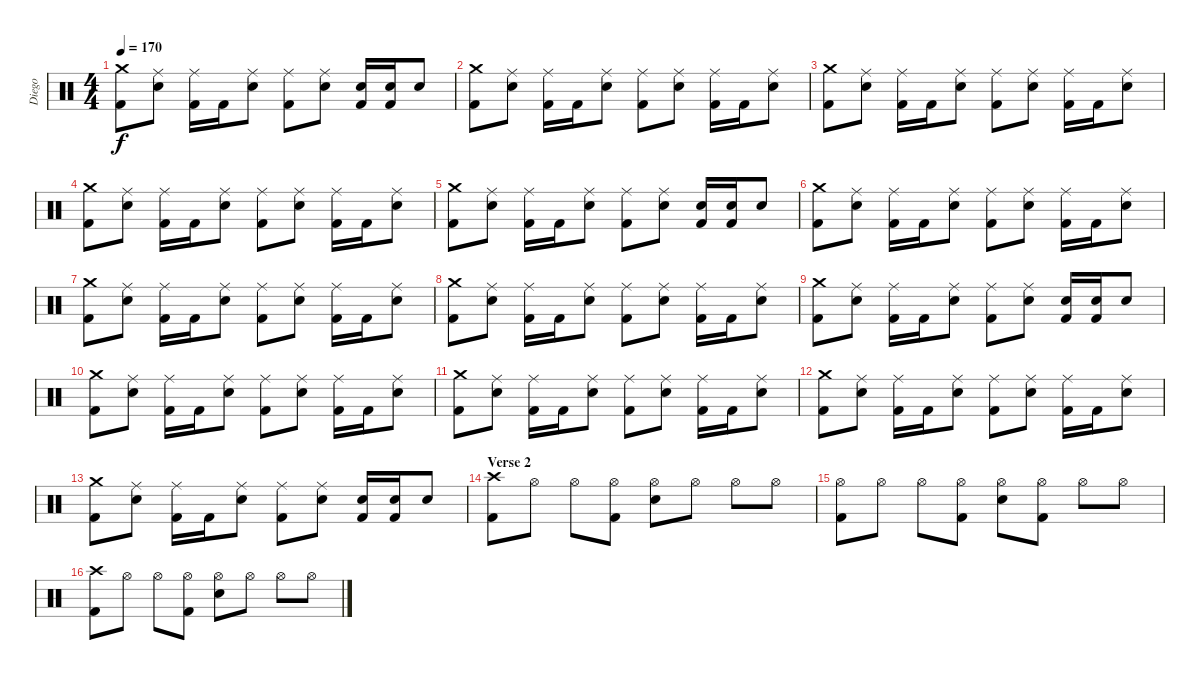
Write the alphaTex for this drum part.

\track ("Diego" "Diego") {instrument percussion}
\staff {score}
\articulation defaults
\ts (4 4)
\tempo 170
\clef neutral
\ks c
("Crash medium (hit)" "Kick (hit) 2").8{dy f} ("Ride (middle)" "Electric Snare (hit)").8 ("Ride (middle)" "Kick (hit) 2").16 "Kick (hit) 2".16 ("Ride (middle)" "Electric Snare (hit)").8 ("Ride (middle)" "Kick (hit) 2").8 ("Ride (middle)" "Electric Snare (hit)").8 ("Electric Snare (hit)" "Kick (hit) 2").16 ("Electric Snare (hit)" "Kick (hit) 2").16 "Electric Snare (hit)".8 |
("Crash medium (hit)" "Kick (hit) 2").8 ("Ride (middle)" "Electric Snare (hit)").8 ("Ride (middle)" "Kick (hit) 2").16 "Kick (hit) 2".16 ("Ride (middle)" "Electric Snare (hit)").8 ("Ride (middle)" "Kick (hit) 2").8 ("Ride (middle)" "Electric Snare (hit)").8 ("Ride (middle)" "Kick (hit) 2").16 "Kick (hit) 2".16 ("Ride (middle)" "Electric Snare (hit)").8 |
("Crash medium (hit)" "Kick (hit) 2").8 ("Ride (middle)" "Electric Snare (hit)").8 ("Ride (middle)" "Kick (hit) 2").16 "Kick (hit) 2".16 ("Ride (middle)" "Electric Snare (hit)").8 ("Ride (middle)" "Kick (hit) 2").8 ("Ride (middle)" "Electric Snare (hit)").8 ("Ride (middle)" "Kick (hit) 2").16 "Kick (hit) 2".16 ("Ride (middle)" "Electric Snare (hit)").8 |
("Crash medium (hit)" "Kick (hit) 2").8 ("Ride (middle)" "Electric Snare (hit)").8 ("Ride (middle)" "Kick (hit) 2").16 "Kick (hit) 2".16 ("Ride (middle)" "Electric Snare (hit)").8 ("Ride (middle)" "Kick (hit) 2").8 ("Ride (middle)" "Electric Snare (hit)").8 ("Ride (middle)" "Kick (hit) 2").16 "Kick (hit) 2".16 ("Ride (middle)" "Electric Snare (hit)").8 |
("Crash medium (hit)" "Kick (hit) 2").8 ("Ride (middle)" "Electric Snare (hit)").8 ("Ride (middle)" "Kick (hit) 2").16 "Kick (hit) 2".16 ("Ride (middle)" "Electric Snare (hit)").8 ("Ride (middle)" "Kick (hit) 2").8 ("Ride (middle)" "Electric Snare (hit)").8 ("Electric Snare (hit)" "Kick (hit) 2").16 ("Electric Snare (hit)" "Kick (hit) 2").16 "Electric Snare (hit)".8 |
("Crash medium (hit)" "Kick (hit) 2").8 ("Ride (middle)" "Electric Snare (hit)").8 ("Ride (middle)" "Kick (hit) 2").16 "Kick (hit) 2".16 ("Ride (middle)" "Electric Snare (hit)").8 ("Ride (middle)" "Kick (hit) 2").8 ("Ride (middle)" "Electric Snare (hit)").8 ("Ride (middle)" "Kick (hit) 2").16 "Kick (hit) 2".16 ("Ride (middle)" "Electric Snare (hit)").8 |
("Crash medium (hit)" "Kick (hit) 2").8 ("Ride (middle)" "Electric Snare (hit)").8 ("Ride (middle)" "Kick (hit) 2").16 "Kick (hit) 2".16 ("Ride (middle)" "Electric Snare (hit)").8 ("Ride (middle)" "Kick (hit) 2").8 ("Ride (middle)" "Electric Snare (hit)").8 ("Ride (middle)" "Kick (hit) 2").16 "Kick (hit) 2".16 ("Ride (middle)" "Electric Snare (hit)").8 |
("Crash medium (hit)" "Kick (hit) 2").8 ("Ride (middle)" "Electric Snare (hit)").8 ("Ride (middle)" "Kick (hit) 2").16 "Kick (hit) 2".16 ("Ride (middle)" "Electric Snare (hit)").8 ("Ride (middle)" "Kick (hit) 2").8 ("Ride (middle)" "Electric Snare (hit)").8 ("Ride (middle)" "Kick (hit) 2").16 "Kick (hit) 2".16 ("Ride (middle)" "Electric Snare (hit)").8 |
("Crash medium (hit)" "Kick (hit) 2").8 ("Ride (middle)" "Electric Snare (hit)").8 ("Ride (middle)" "Kick (hit) 2").16 "Kick (hit) 2".16 ("Ride (middle)" "Electric Snare (hit)").8 ("Ride (middle)" "Kick (hit) 2").8 ("Ride (middle)" "Electric Snare (hit)").8 ("Electric Snare (hit)" "Kick (hit) 2").16 ("Electric Snare (hit)" "Kick (hit) 2").16 "Electric Snare (hit)".8 |
("Crash medium (hit)" "Kick (hit) 2").8 ("Ride (middle)" "Electric Snare (hit)").8 ("Ride (middle)" "Kick (hit) 2").16 "Kick (hit) 2".16 ("Ride (middle)" "Electric Snare (hit)").8 ("Ride (middle)" "Kick (hit) 2").8 ("Ride (middle)" "Electric Snare (hit)").8 ("Ride (middle)" "Kick (hit) 2").16 "Kick (hit) 2".16 ("Ride (middle)" "Electric Snare (hit)").8 |
("Crash medium (hit)" "Kick (hit) 2").8 ("Ride (middle)" "Electric Snare (hit)").8 ("Ride (middle)" "Kick (hit) 2").16 "Kick (hit) 2".16 ("Ride (middle)" "Electric Snare (hit)").8 ("Ride (middle)" "Kick (hit) 2").8 ("Ride (middle)" "Electric Snare (hit)").8 ("Ride (middle)" "Kick (hit) 2").16 "Kick (hit) 2".16 ("Ride (middle)" "Electric Snare (hit)").8 |
("Crash medium (hit)" "Kick (hit) 2").8 ("Ride (middle)" "Electric Snare (hit)").8 ("Ride (middle)" "Kick (hit) 2").16 "Kick (hit) 2".16 ("Ride (middle)" "Electric Snare (hit)").8 ("Ride (middle)" "Kick (hit) 2").8 ("Ride (middle)" "Electric Snare (hit)").8 ("Ride (middle)" "Kick (hit) 2").16 "Kick (hit) 2".16 ("Ride (middle)" "Electric Snare (hit)").8 |
("Crash medium (hit)" "Kick (hit) 2").8 ("Ride (middle)" "Electric Snare (hit)").8 ("Ride (middle)" "Kick (hit) 2").16 "Kick (hit) 2".16 ("Ride (middle)" "Electric Snare (hit)").8 ("Ride (middle)" "Kick (hit) 2").8 ("Ride (middle)" "Electric Snare (hit)").8 ("Electric Snare (hit)" "Kick (hit) 2").16 ("Electric Snare (hit)" "Kick (hit) 2").16 "Electric Snare (hit)".8 |
\section ("" "Verse 2")
("Crash high (hit)" "Kick (hit) 2").8 "Hi-Hat (open)".8 "Hi-Hat (open)".8 ("Hi-Hat (open)" "Kick (hit) 2").8 ("Hi-Hat (open)" "Electric Snare (hit)").8 "Hi-Hat (open)".8 "Hi-Hat (open)".8 "Hi-Hat (open)".8 |
("Hi-Hat (open)" "Kick (hit) 2").8 "Hi-Hat (open)".8 "Hi-Hat (open)".8 ("Hi-Hat (open)" "Kick (hit) 2").8 ("Hi-Hat (open)" "Electric Snare (hit)").8 ("Hi-Hat (open)" "Kick (hit) 2").8 "Hi-Hat (open)".8 "Hi-Hat (open)".8 |
("Crash high (hit)" "Kick (hit) 2").8 "Hi-Hat (open)".8 "Hi-Hat (open)".8 ("Hi-Hat (open)" "Kick (hit) 2").8 ("Hi-Hat (open)" "Electric Snare (hit)").8 "Hi-Hat (open)".8 "Hi-Hat (open)".8 "Hi-Hat (open)".8
